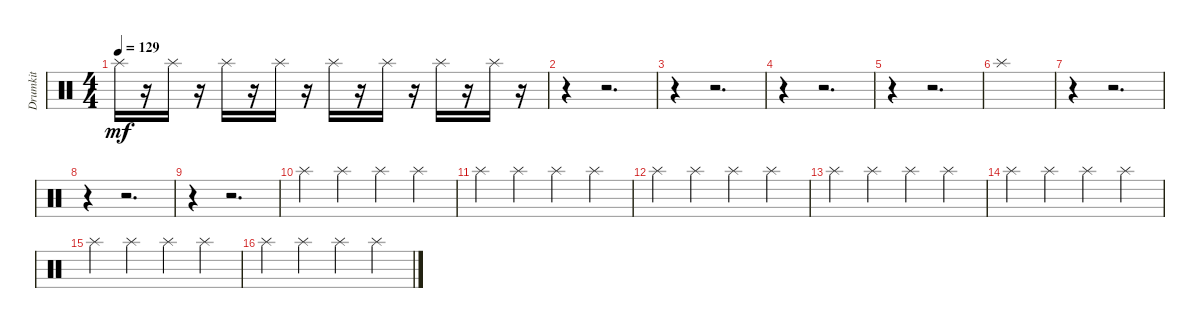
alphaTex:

\track ("Drumkit" "Drumkit") {instrument percussion}
\staff {score}
\articulation defaults
\ts (4 4)
\tempo 129
\clef neutral
\ks c "Splash (hit)".16{dy mf}
r.16 "Splash (hit)".16 r.16 "Splash (hit)".16 r.16 "Splash (hit)".16 r.16 "Splash (hit)".16 r.16 "Splash (hit)".16 r.16 "Splash (hit)".16 r.16 "Splash (hit)".16 r.16 |
r.4 r.2{d} |
r.4 r.2{d} |
r.4 r.2{d} |
r.4 r.2{d} |
"Splash (hit)".1 |
r.4 r.2{d} |
r.4 r.2{d} |
r.4 r.2{d} |
"Splash (hit)".4 "Splash (hit)".4 "Splash (hit)".4 "Splash (hit)".4 |
"Splash (hit)".4 "Splash (hit)".4 "Splash (hit)".4 "Splash (hit)".4 |
"Splash (hit)".4 "Splash (hit)".4 "Splash (hit)".4 "Splash (hit)".4 |
"Splash (hit)".4 "Splash (hit)".4 "Splash (hit)".4 "Splash (hit)".4 |
"Splash (hit)".4 "Splash (hit)".4 "Splash (hit)".4 "Splash (hit)".4 |
"Splash (hit)".4 "Splash (hit)".4 "Splash (hit)".4 "Splash (hit)".4 |
"Splash (hit)".4 "Splash (hit)".4 "Splash (hit)".4 "Splash (hit)".4
